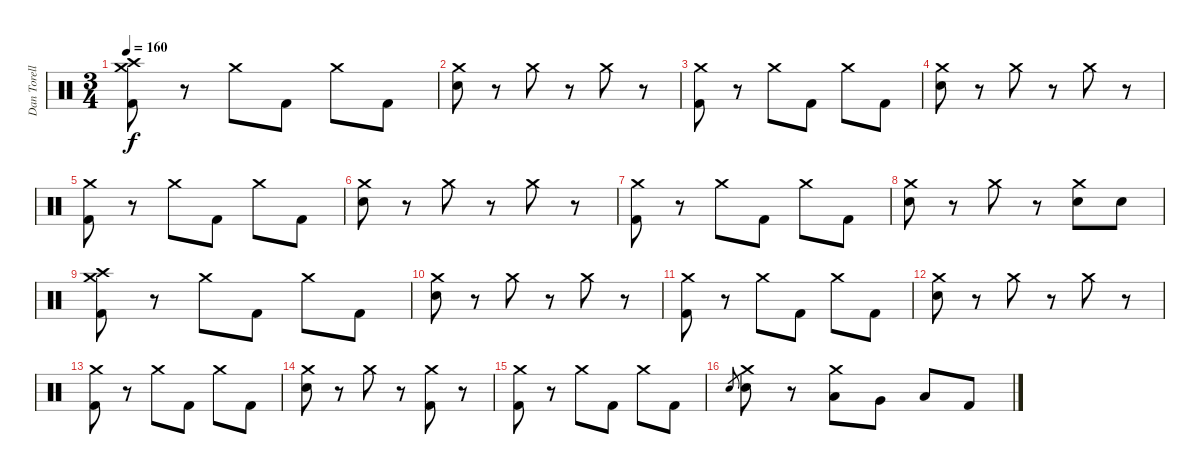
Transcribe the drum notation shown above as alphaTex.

\track ("Dan Torelli - Drums" "Dan Torell") {instrument percussion}
\staff {score}
\articulation defaults
\ts (3 4)
\tempo 160
\clef neutral
\ks c
("Crash high (hit)" "Crash medium (hit)" "Kick (hit) 2").8{dy f} r.8 "Crash medium (hit)".8 "Kick (hit) 2".8 "Crash medium (hit)".8 "Kick (hit) 2".8 |
("Crash medium (hit)" "Electric Snare (hit)").8 r.8 "Crash medium (hit)".8 r.8 "Crash medium (hit)".8 r.8 |
("Crash medium (hit)" "Kick (hit) 2").8 r.8 "Crash medium (hit)".8 "Kick (hit) 2".8 "Crash medium (hit)".8 "Kick (hit) 2".8 |
("Crash medium (hit)" "Electric Snare (hit)").8 r.8 "Crash medium (hit)".8 r.8 "Crash medium (hit)".8 r.8 |
("Crash medium (hit)" "Kick (hit) 2").8 r.8 "Crash medium (hit)".8 "Kick (hit) 2".8 "Crash medium (hit)".8 "Kick (hit) 2".8 |
("Crash medium (hit)" "Electric Snare (hit)").8 r.8 "Crash medium (hit)".8 r.8 "Crash medium (hit)".8 r.8 |
("Crash medium (hit)" "Kick (hit) 2").8 r.8 "Crash medium (hit)".8 "Kick (hit) 2".8 "Crash medium (hit)".8 "Kick (hit) 2".8 |
("Crash medium (hit)" "Electric Snare (hit)").8 r.8 "Crash medium (hit)".8 r.8 ("Crash medium (hit)" "Electric Snare (hit)").8 "Electric Snare (hit)".8 |
("Crash medium (hit)" "Crash high (hit)" "Kick (hit) 2").8 r.8 "Crash medium (hit)".8 "Kick (hit) 2".8 "Crash medium (hit)".8 "Kick (hit) 2".8 |
("Crash medium (hit)" "Electric Snare (hit)").8 r.8 "Crash medium (hit)".8 r.8 "Crash medium (hit)".8 r.8 |
("Crash medium (hit)" "Kick (hit) 2").8 r.8 "Crash medium (hit)".8 "Kick (hit) 2".8 "Crash medium (hit)".8 "Kick (hit) 2".8 |
("Crash medium (hit)" "Electric Snare (hit)").8 r.8 "Crash medium (hit)".8 r.8 "Crash medium (hit)".8 r.8 |
("Crash medium (hit)" "Kick (hit) 2").8 r.8 "Crash medium (hit)".8 "Kick (hit) 2".8 "Crash medium (hit)".8 "Kick (hit) 2".8 |
("Crash medium (hit)" "Electric Snare (hit)").8 r.8 "Crash medium (hit)".8 r.8 ("Crash medium (hit)" "Kick (hit) 2").8 r.8 |
("Crash medium (hit)" "Kick (hit) 2").8 r.8 "Crash medium (hit)".8 "Kick (hit) 2".8 "Crash medium (hit)".8 "Kick (hit) 2".8 |
"Electric Snare (hit)".8{gr} ("Crash medium (hit)" "Electric Snare (hit)").8 r.8 ("Crash medium (hit)" "Low Tom (hit)").8 "Very Low Tom (hit)".8 "Low Floor Tom (hit)".8 "Kick (hit) 2".8
